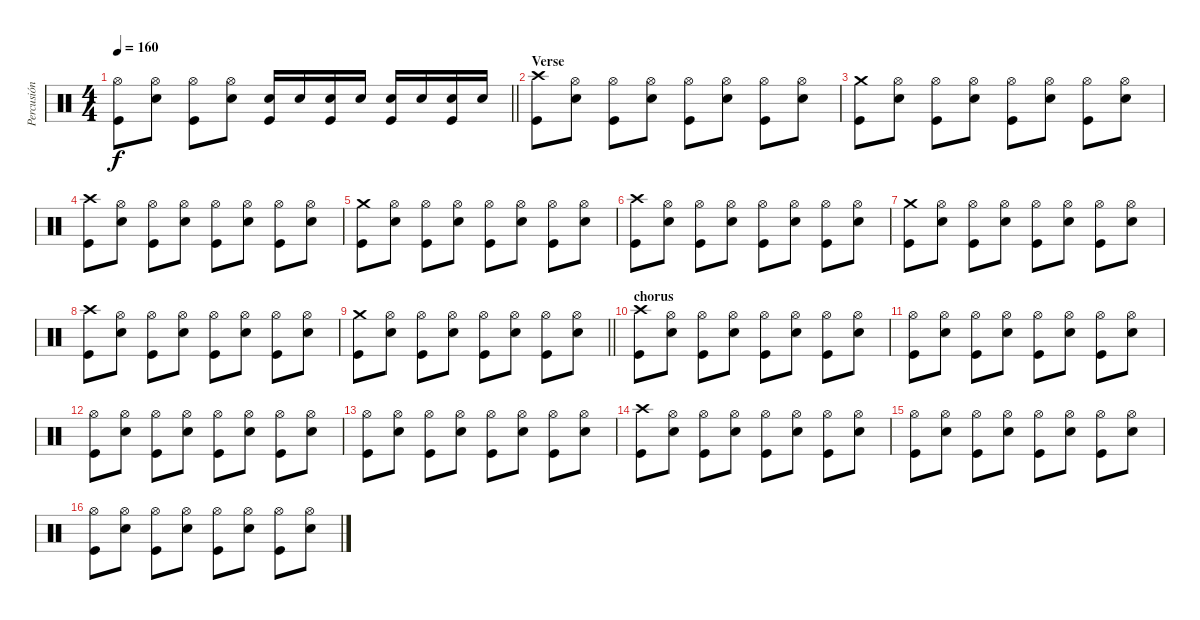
\track ("Percusión" "Percusión") {instrument percussion}
\staff
\articulation defaults
\ts (4 4)
\tempo 160
\clef neutral
\barLineRight lightlight
\ks c
("Kick (hit)" "Hi-Hat (open)").8{dy f} ("Hi-Hat (open)" "Electric Snare (hit)").8 ("Kick (hit)" "Hi-Hat (open)").8 ("Hi-Hat (open)" "Electric Snare (hit)").8 ("Kick (hit)" "Electric Snare (hit)").16 "Electric Snare (hit)".16 ("Kick (hit)" "Electric Snare (hit)").16 "Electric Snare (hit)".16 ("Kick (hit)" "Electric Snare (hit)").16 "Electric Snare (hit)".16 ("Kick (hit)" "Electric Snare (hit)").16 "Electric Snare (hit)".16 |
\section ("" "Verse")
("Kick (hit)" "Crash high (hit)").8 ("Hi-Hat (open)" "Electric Snare (hit)").8 ("Kick (hit)" "Hi-Hat (open)").8 ("Hi-Hat (open)" "Electric Snare (hit)").8 ("Kick (hit)" "Hi-Hat (open)").8 ("Hi-Hat (open)" "Electric Snare (hit)").8 ("Kick (hit)" "Hi-Hat (open)").8 ("Hi-Hat (open)" "Electric Snare (hit)").8 |
("Kick (hit)" "Crash medium (hit)").8 ("Hi-Hat (open)" "Electric Snare (hit)").8 ("Kick (hit)" "Hi-Hat (open)").8 ("Hi-Hat (open)" "Electric Snare (hit)").8 ("Kick (hit)" "Hi-Hat (open)").8 ("Hi-Hat (open)" "Electric Snare (hit)").8 ("Kick (hit)" "Hi-Hat (open)").8 ("Hi-Hat (open)" "Electric Snare (hit)").8 |
("Kick (hit)" "Crash high (hit)").8 ("Hi-Hat (open)" "Electric Snare (hit)").8 ("Kick (hit)" "Hi-Hat (open)").8 ("Hi-Hat (open)" "Electric Snare (hit)").8 ("Kick (hit)" "Hi-Hat (open)").8 ("Hi-Hat (open)" "Electric Snare (hit)").8 ("Kick (hit)" "Hi-Hat (open)").8 ("Hi-Hat (open)" "Electric Snare (hit)").8 |
("Kick (hit)" "Crash medium (hit)").8 ("Hi-Hat (open)" "Electric Snare (hit)").8 ("Kick (hit)" "Hi-Hat (open)").8 ("Hi-Hat (open)" "Electric Snare (hit)").8 ("Kick (hit)" "Hi-Hat (open)").8 ("Hi-Hat (open)" "Electric Snare (hit)").8 ("Kick (hit)" "Hi-Hat (open)").8 ("Hi-Hat (open)" "Electric Snare (hit)").8 |
("Kick (hit)" "Crash high (hit)").8 ("Hi-Hat (open)" "Electric Snare (hit)").8 ("Kick (hit)" "Hi-Hat (open)").8 ("Hi-Hat (open)" "Electric Snare (hit)").8 ("Kick (hit)" "Hi-Hat (open)").8 ("Hi-Hat (open)" "Electric Snare (hit)").8 ("Kick (hit)" "Hi-Hat (open)").8 ("Hi-Hat (open)" "Electric Snare (hit)").8 |
("Kick (hit)" "Crash medium (hit)").8 ("Hi-Hat (open)" "Electric Snare (hit)").8 ("Kick (hit)" "Hi-Hat (open)").8 ("Hi-Hat (open)" "Electric Snare (hit)").8 ("Kick (hit)" "Hi-Hat (open)").8 ("Hi-Hat (open)" "Electric Snare (hit)").8 ("Kick (hit)" "Hi-Hat (open)").8 ("Hi-Hat (open)" "Electric Snare (hit)").8 |
("Kick (hit)" "Crash high (hit)").8 ("Hi-Hat (open)" "Electric Snare (hit)").8 ("Kick (hit)" "Hi-Hat (open)").8 ("Hi-Hat (open)" "Electric Snare (hit)").8 ("Kick (hit)" "Hi-Hat (open)").8 ("Hi-Hat (open)" "Electric Snare (hit)").8 ("Kick (hit)" "Hi-Hat (open)").8 ("Hi-Hat (open)" "Electric Snare (hit)").8 |
\barLineRight lightlight
("Kick (hit)" "Crash medium (hit)").8 ("Hi-Hat (open)" "Electric Snare (hit)").8 ("Kick (hit)" "Hi-Hat (open)").8 ("Hi-Hat (open)" "Electric Snare (hit)").8 ("Kick (hit)" "Hi-Hat (open)").8 ("Hi-Hat (open)" "Electric Snare (hit)").8 ("Kick (hit)" "Hi-Hat (open)").8 ("Hi-Hat (open)" "Electric Snare (hit)").8 |
\section ("" "chorus")
("Kick (hit)" "Crash high (hit)").8 ("Hi-Hat (open)" "Electric Snare (hit)").8 ("Kick (hit)" "Hi-Hat (open)").8 ("Hi-Hat (open)" "Electric Snare (hit)").8 ("Kick (hit)" "Hi-Hat (open)").8 ("Hi-Hat (open)" "Electric Snare (hit)").8 ("Kick (hit)" "Hi-Hat (open)").8 ("Hi-Hat (open)" "Electric Snare (hit)").8 |
("Kick (hit)" "Hi-Hat (open)").8 ("Hi-Hat (open)" "Electric Snare (hit)").8 ("Kick (hit)" "Hi-Hat (open)").8 ("Hi-Hat (open)" "Electric Snare (hit)").8 ("Kick (hit)" "Hi-Hat (open)").8 ("Hi-Hat (open)" "Electric Snare (hit)").8 ("Kick (hit)" "Hi-Hat (open)").8 ("Hi-Hat (open)" "Electric Snare (hit)").8 |
("Kick (hit)" "Hi-Hat (open)").8 ("Hi-Hat (open)" "Electric Snare (hit)").8 ("Kick (hit)" "Hi-Hat (open)").8 ("Hi-Hat (open)" "Electric Snare (hit)").8 ("Kick (hit)" "Hi-Hat (open)").8 ("Hi-Hat (open)" "Electric Snare (hit)").8 ("Kick (hit)" "Hi-Hat (open)").8 ("Hi-Hat (open)" "Electric Snare (hit)").8 |
("Kick (hit)" "Hi-Hat (open)").8 ("Hi-Hat (open)" "Electric Snare (hit)").8 ("Kick (hit)" "Hi-Hat (open)").8 ("Hi-Hat (open)" "Electric Snare (hit)").8 ("Kick (hit)" "Hi-Hat (open)").8 ("Hi-Hat (open)" "Electric Snare (hit)").8 ("Kick (hit)" "Hi-Hat (open)").8 ("Hi-Hat (open)" "Electric Snare (hit)").8 |
("Kick (hit)" "Crash high (hit)").8 ("Hi-Hat (open)" "Electric Snare (hit)").8 ("Kick (hit)" "Hi-Hat (open)").8 ("Hi-Hat (open)" "Electric Snare (hit)").8 ("Kick (hit)" "Hi-Hat (open)").8 ("Hi-Hat (open)" "Electric Snare (hit)").8 ("Kick (hit)" "Hi-Hat (open)").8 ("Hi-Hat (open)" "Electric Snare (hit)").8 |
("Kick (hit)" "Hi-Hat (open)").8 ("Hi-Hat (open)" "Electric Snare (hit)").8 ("Kick (hit)" "Hi-Hat (open)").8 ("Hi-Hat (open)" "Electric Snare (hit)").8 ("Kick (hit)" "Hi-Hat (open)").8 ("Hi-Hat (open)" "Electric Snare (hit)").8 ("Kick (hit)" "Hi-Hat (open)").8 ("Hi-Hat (open)" "Electric Snare (hit)").8 |
("Kick (hit)" "Hi-Hat (open)").8 ("Hi-Hat (open)" "Electric Snare (hit)").8 ("Kick (hit)" "Hi-Hat (open)").8 ("Hi-Hat (open)" "Electric Snare (hit)").8 ("Kick (hit)" "Hi-Hat (open)").8 ("Hi-Hat (open)" "Electric Snare (hit)").8 ("Kick (hit)" "Hi-Hat (open)").8 ("Hi-Hat (open)" "Electric Snare (hit)").8
